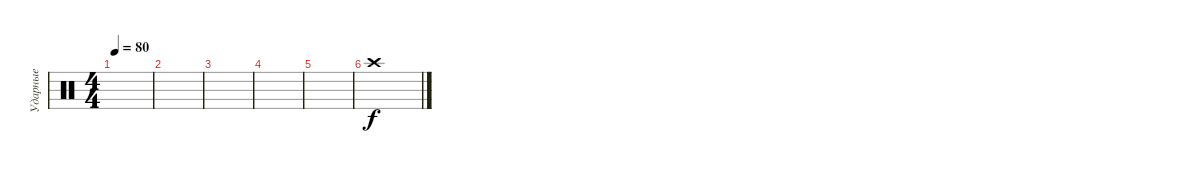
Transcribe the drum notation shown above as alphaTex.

\track ("Ударные" "Ударные") {instrument percussion}
\staff {score}
\articulation defaults
\ts (4 4)
\tempo 80
\clef neutral
\ks c
|
|
|
|
|
"Crash high (hit)".1
